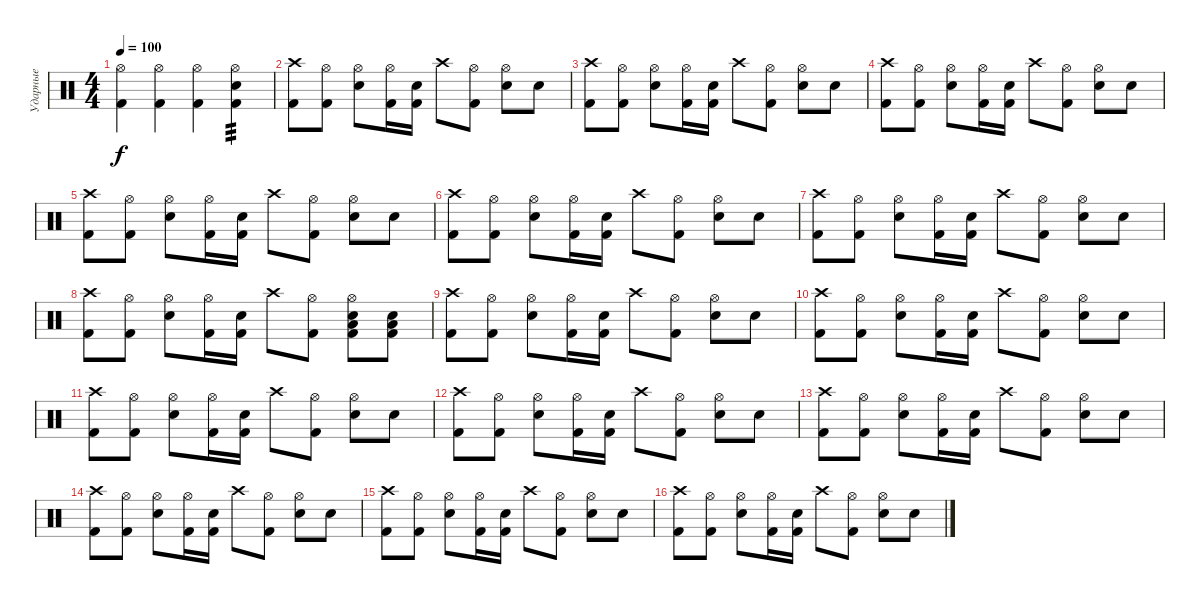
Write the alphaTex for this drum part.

\track ("Ударные" "Ударные") {instrument percussion}
\staff {score}
\articulation defaults
\ts (4 4)
\tempo 100
\clef neutral
\ks c
("Hi-Hat (open)" "Kick (hit) 2").4{dy f} ("Hi-Hat (open)" "Kick (hit) 2").4 ("Hi-Hat (open)" "Kick (hit) 2").4 ("Hi-Hat (open)" "Electric Snare (hit)" "Kick (hit) 2").4{tp 3} |
("Crash high (hit)" "Kick (hit) 2").8 ("Hi-Hat (open)" "Kick (hit) 2").8 ("Hi-Hat (open)" "Electric Snare (hit)").8 ("Hi-Hat (open)" "Kick (hit) 2").16 ("Electric Snare (hit)" "Kick (hit) 2").16 "Crash high (hit)".8 ("Hi-Hat (open)" "Kick (hit) 2").8 ("Hi-Hat (open)" "Electric Snare (hit)").8 "Electric Snare (hit)".8 |
("Crash high (hit)" "Kick (hit) 2").8 ("Hi-Hat (open)" "Kick (hit) 2").8 ("Hi-Hat (open)" "Electric Snare (hit)").8 ("Hi-Hat (open)" "Kick (hit) 2").16 ("Electric Snare (hit)" "Kick (hit) 2").16 "Crash high (hit)".8 ("Hi-Hat (open)" "Kick (hit) 2").8 ("Hi-Hat (open)" "Electric Snare (hit)").8 "Electric Snare (hit)".8 |
("Crash high (hit)" "Kick (hit) 2").8 ("Hi-Hat (open)" "Kick (hit) 2").8 ("Hi-Hat (open)" "Electric Snare (hit)").8 ("Hi-Hat (open)" "Kick (hit) 2").16 ("Electric Snare (hit)" "Kick (hit) 2").16 "Crash high (hit)".8 ("Hi-Hat (open)" "Kick (hit) 2").8 ("Hi-Hat (open)" "Electric Snare (hit)").8 "Electric Snare (hit)".8 |
("Crash high (hit)" "Kick (hit) 2").8 ("Hi-Hat (open)" "Kick (hit) 2").8 ("Hi-Hat (open)" "Electric Snare (hit)").8 ("Hi-Hat (open)" "Kick (hit) 2").16 ("Electric Snare (hit)" "Kick (hit) 2").16 "Crash high (hit)".8 ("Hi-Hat (open)" "Kick (hit) 2").8 ("Hi-Hat (open)" "Electric Snare (hit)").8 "Electric Snare (hit)".8 |
("Crash high (hit)" "Kick (hit) 2").8 ("Hi-Hat (open)" "Kick (hit) 2").8 ("Hi-Hat (open)" "Electric Snare (hit)").8 ("Hi-Hat (open)" "Kick (hit) 2").16 ("Electric Snare (hit)" "Kick (hit) 2").16 "Crash high (hit)".8 ("Hi-Hat (open)" "Kick (hit) 2").8 ("Hi-Hat (open)" "Electric Snare (hit)").8 "Electric Snare (hit)".8 |
("Crash high (hit)" "Kick (hit) 2").8 ("Hi-Hat (open)" "Kick (hit) 2").8 ("Hi-Hat (open)" "Electric Snare (hit)").8 ("Hi-Hat (open)" "Kick (hit) 2").16 ("Electric Snare (hit)" "Kick (hit) 2").16 "Crash high (hit)".8 ("Hi-Hat (open)" "Kick (hit) 2").8 ("Hi-Hat (open)" "Electric Snare (hit)").8 "Electric Snare (hit)".8 |
("Crash high (hit)" "Kick (hit) 2").8 ("Hi-Hat (open)" "Kick (hit) 2").8 ("Hi-Hat (open)" "Electric Snare (hit)").8 ("Hi-Hat (open)" "Kick (hit) 2").16 ("Electric Snare (hit)" "Kick (hit) 2").16 "Crash high (hit)".8 ("Hi-Hat (open)" "Kick (hit) 2").8 ("Hi-Hat (open)" "Electric Snare (hit)" "Low Tom (hit)" "Kick (hit) 2").8 ("Electric Snare (hit)" "Low Tom (hit)" "Kick (hit) 2").8 |
("Crash high (hit)" "Kick (hit) 2").8 ("Hi-Hat (open)" "Kick (hit) 2").8 ("Hi-Hat (open)" "Electric Snare (hit)").8 ("Hi-Hat (open)" "Kick (hit) 2").16 ("Electric Snare (hit)" "Kick (hit) 2").16 "Crash high (hit)".8 ("Hi-Hat (open)" "Kick (hit) 2").8 ("Hi-Hat (open)" "Electric Snare (hit)").8 "Electric Snare (hit)".8 |
("Crash high (hit)" "Kick (hit) 2").8 ("Hi-Hat (open)" "Kick (hit) 2").8 ("Hi-Hat (open)" "Electric Snare (hit)").8 ("Hi-Hat (open)" "Kick (hit) 2").16 ("Electric Snare (hit)" "Kick (hit) 2").16 "Crash high (hit)".8 ("Hi-Hat (open)" "Kick (hit) 2").8 ("Hi-Hat (open)" "Electric Snare (hit)").8 "Electric Snare (hit)".8 |
("Crash high (hit)" "Kick (hit) 2").8 ("Hi-Hat (open)" "Kick (hit) 2").8 ("Hi-Hat (open)" "Electric Snare (hit)").8 ("Hi-Hat (open)" "Kick (hit) 2").16 ("Electric Snare (hit)" "Kick (hit) 2").16 "Crash high (hit)".8 ("Hi-Hat (open)" "Kick (hit) 2").8 ("Hi-Hat (open)" "Electric Snare (hit)").8 "Electric Snare (hit)".8 |
("Crash high (hit)" "Kick (hit) 2").8 ("Hi-Hat (open)" "Kick (hit) 2").8 ("Hi-Hat (open)" "Electric Snare (hit)").8 ("Hi-Hat (open)" "Kick (hit) 2").16 ("Electric Snare (hit)" "Kick (hit) 2").16 "Crash high (hit)".8 ("Hi-Hat (open)" "Kick (hit) 2").8 ("Hi-Hat (open)" "Electric Snare (hit)").8 "Electric Snare (hit)".8 |
("Crash high (hit)" "Kick (hit) 2").8 ("Hi-Hat (open)" "Kick (hit) 2").8 ("Hi-Hat (open)" "Electric Snare (hit)").8 ("Hi-Hat (open)" "Kick (hit) 2").16 ("Electric Snare (hit)" "Kick (hit) 2").16 "Crash high (hit)".8 ("Hi-Hat (open)" "Kick (hit) 2").8 ("Hi-Hat (open)" "Electric Snare (hit)").8 "Electric Snare (hit)".8 |
("Crash high (hit)" "Kick (hit) 2").8 ("Hi-Hat (open)" "Kick (hit) 2").8 ("Hi-Hat (open)" "Electric Snare (hit)").8 ("Hi-Hat (open)" "Kick (hit) 2").16 ("Electric Snare (hit)" "Kick (hit) 2").16 "Crash high (hit)".8 ("Hi-Hat (open)" "Kick (hit) 2").8 ("Hi-Hat (open)" "Electric Snare (hit)").8 "Electric Snare (hit)".8 |
("Crash high (hit)" "Kick (hit) 2").8 ("Hi-Hat (open)" "Kick (hit) 2").8 ("Hi-Hat (open)" "Electric Snare (hit)").8 ("Hi-Hat (open)" "Kick (hit) 2").16 ("Electric Snare (hit)" "Kick (hit) 2").16 "Crash high (hit)".8 ("Hi-Hat (open)" "Kick (hit) 2").8 ("Hi-Hat (open)" "Electric Snare (hit)").8 "Electric Snare (hit)".8 |
("Crash high (hit)" "Kick (hit) 2").8 ("Hi-Hat (open)" "Kick (hit) 2").8 ("Hi-Hat (open)" "Electric Snare (hit)").8 ("Hi-Hat (open)" "Kick (hit) 2").16 ("Electric Snare (hit)" "Kick (hit) 2").16 "Crash high (hit)".8 ("Hi-Hat (open)" "Kick (hit) 2").8 ("Hi-Hat (open)" "Electric Snare (hit)").8 "Electric Snare (hit)".8
